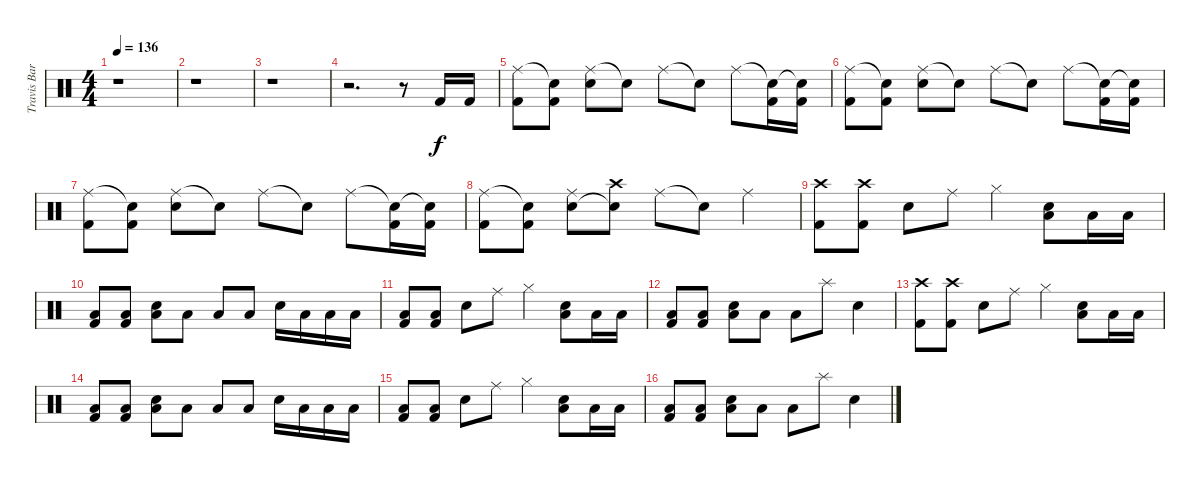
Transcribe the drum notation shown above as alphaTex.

\track ("Travis Barker" "Travis Bar") {instrument percussion}
\staff {score}
\articulation defaults
\ts (4 4)
\tempo 136
\clef neutral
\ks c
r.1{dy f} |
r.1 |
r.1 |
r.2{d} r.8 "Kick (hit) 2".16 "Kick (hit) 2".16 |
("Ride (middle)" "Kick (hit) 2").8 ("Snare (hit)"{t} "Kick (hit) 2").8 ("Ride (middle)" "Snare (hit) 2").8 "Snare (hit)"{t}.8 "Ride (middle)".8 "Snare (hit)"{t}.8 "Ride (middle)".8 ("Snare (hit)"{t} "Kick (hit) 2").16 ("Snare (hit)"{t} "Kick (hit) 2").16 |
("Ride (middle)" "Kick (hit) 2").8 ("Snare (hit)"{t} "Kick (hit) 2").8 ("Ride (middle)" "Snare (hit) 2").8 "Snare (hit)"{t}.8 "Ride (middle)".8 "Snare (hit)"{t}.8 "Ride (middle)".8 ("Snare (hit)"{t} "Kick (hit) 2").16 ("Snare (hit)"{t} "Kick (hit) 2").16 |
("Ride (middle)" "Kick (hit) 2").8 ("Snare (hit)"{t} "Kick (hit) 2").8 ("Ride (middle)" "Snare (hit) 2").8 "Snare (hit)"{t}.8 "Ride (middle)".8 "Snare (hit)"{t}.8 "Ride (middle)".8 ("Snare (hit)"{t} "Kick (hit) 2").16 ("Snare (hit)"{t} "Kick (hit) 2").16 |
("Ride (middle)" "Kick (hit) 2").8 ("Snare (hit)"{t} "Kick (hit) 2").8 ("Ride (middle)" "Snare (hit) 2").8 ("Crash high (hit)" "Snare (hit)"{t}).8 "Ride (middle)".8 "Snare (hit)"{t}.8 "Ride (middle)".4 |
("Crash high (hit)" "Kick (hit) 2").8 ("Crash high (hit)" "Kick (hit) 2").8 "Snare (hit) 2".8 "Ride (middle)".8 "Hi-Hat (closed)".4 ("Low Floor Tom (hit)" "Snare (hit) 2").8 "Low Floor Tom (hit)".16 "Low Floor Tom (hit)".16 |
("Low Floor Tom (hit)" "Kick (hit) 2").8 ("Low Floor Tom (hit)" "Kick (hit) 2").8 ("Low Floor Tom (hit)" "Snare (hit) 2").8 "Low Floor Tom (hit)".8 "Low Floor Tom (hit)".8 "Low Floor Tom (hit)".8 "Snare (hit) 2".16 "Low Tom (hit)".16 "Low Floor Tom (hit)".16 "Low Floor Tom (hit)".16 |
("Low Floor Tom (hit)" "Kick (hit) 2").8 ("Low Floor Tom (hit)" "Kick (hit) 2").8 "Snare (hit) 2".8 "Ride (middle)".8 "Hi-Hat (closed)".4 ("Low Floor Tom (hit)" "Snare (hit) 2").8 "Low Floor Tom (hit)".16 "Low Floor Tom (hit)".16 |
("Low Floor Tom (hit)" "Kick (hit) 2").8 ("Low Floor Tom (hit)" "Kick (hit) 2").8 ("Low Floor Tom (hit)" "Snare (hit) 2").8 "Low Floor Tom (hit)".8 "Low Floor Tom (hit)".8 "Splash (hit)".8 "Snare (hit) 2".4 |
("Crash high (hit)" "Kick (hit) 2").8 ("Crash high (hit)" "Kick (hit) 2").8 "Snare (hit) 2".8 "Ride (middle)".8 "Hi-Hat (closed)".4 ("Low Floor Tom (hit)" "Snare (hit) 2").8 "Low Floor Tom (hit)".16 "Low Floor Tom (hit)".16 |
("Low Floor Tom (hit)" "Kick (hit) 2").8 ("Low Floor Tom (hit)" "Kick (hit) 2").8 ("Low Floor Tom (hit)" "Snare (hit) 2").8 "Low Floor Tom (hit)".8 "Low Floor Tom (hit)".8 "Low Floor Tom (hit)".8 "Snare (hit) 2".16 "Low Tom (hit)".16 "Low Floor Tom (hit)".16 "Low Floor Tom (hit)".16 |
("Low Floor Tom (hit)" "Kick (hit) 2").8 ("Low Floor Tom (hit)" "Kick (hit) 2").8 "Snare (hit) 2".8 "Ride (middle)".8 "Hi-Hat (closed)".4 ("Low Floor Tom (hit)" "Snare (hit) 2").8 "Low Floor Tom (hit)".16 "Low Floor Tom (hit)".16 |
("Low Floor Tom (hit)" "Kick (hit) 2").8 ("Low Floor Tom (hit)" "Kick (hit) 2").8 ("Low Floor Tom (hit)" "Snare (hit) 2").8 "Low Floor Tom (hit)".8 "Low Floor Tom (hit)".8 "Splash (hit)".8 "Snare (hit) 2".4
